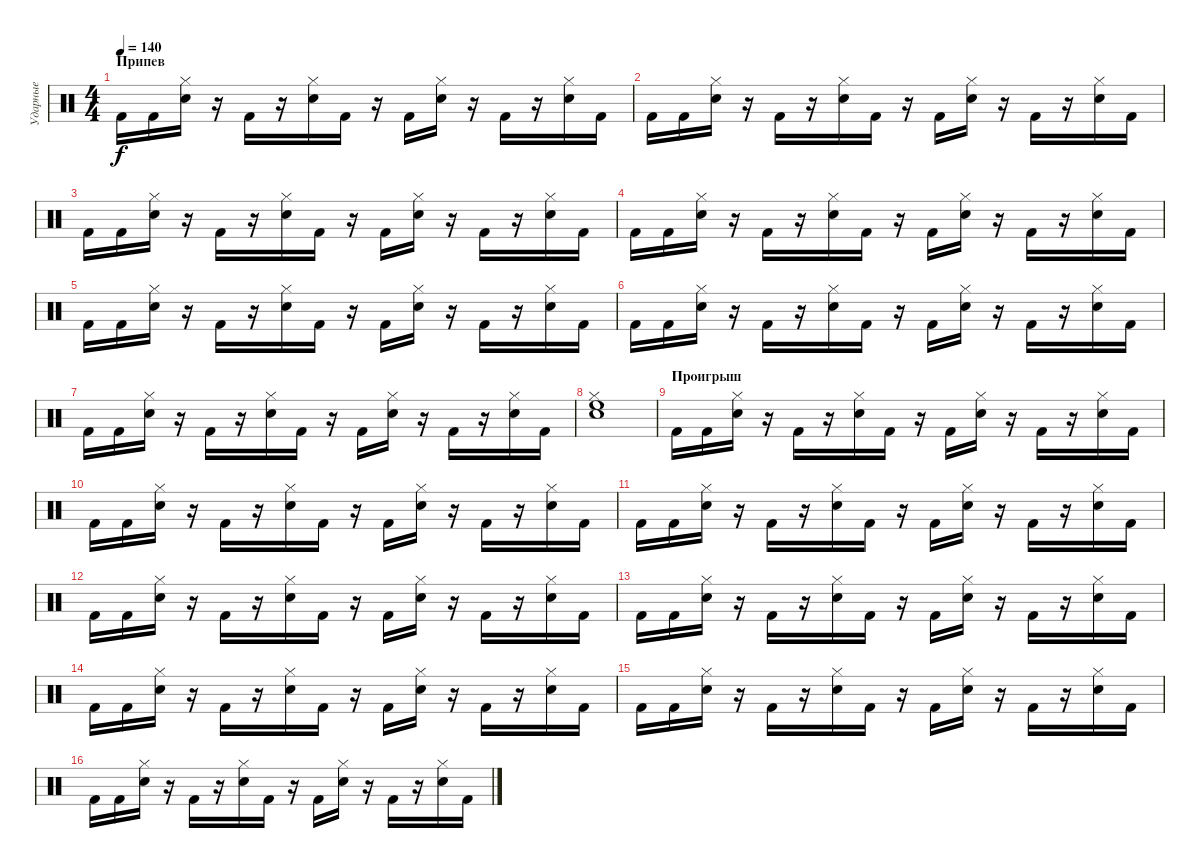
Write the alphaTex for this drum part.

\track ("Ударные" "Ударные") {instrument percussion}
\staff {score}
\articulation defaults
\ts (4 4)
\section ("" "Припев")
\tempo 140
\clef neutral
\ks c "Kick (hit) 2".16{dy f} "Kick (hit) 2".16
("Snare (hit) 2" "Hi-Hat (closed)").16 r.16 "Kick (hit) 2".16 r.16 ("Snare (hit) 2" "Hi-Hat (closed)").16 "Kick (hit) 2".16 r.16 "Kick (hit) 2".16 ("Snare (hit) 2" "Hi-Hat (closed)").16 r.16 "Kick (hit) 2".16 r.16 ("Snare (hit) 2" "Hi-Hat (closed)").16 "Kick (hit) 2".16 |
"Kick (hit) 2".16 "Kick (hit) 2".16 ("Snare (hit) 2" "Hi-Hat (closed)").16 r.16 "Kick (hit) 2".16 r.16 ("Snare (hit) 2" "Hi-Hat (closed)").16 "Kick (hit) 2".16 r.16 "Kick (hit) 2".16 ("Snare (hit) 2" "Hi-Hat (closed)").16 r.16 "Kick (hit) 2".16 r.16 ("Snare (hit) 2" "Hi-Hat (closed)").16 "Kick (hit) 2".16 |
"Kick (hit) 2".16 "Kick (hit) 2".16 ("Snare (hit) 2" "Hi-Hat (closed)").16 r.16 "Kick (hit) 2".16 r.16 ("Snare (hit) 2" "Hi-Hat (closed)").16 "Kick (hit) 2".16 r.16 "Kick (hit) 2".16 ("Snare (hit) 2" "Hi-Hat (closed)").16 r.16 "Kick (hit) 2".16 r.16 ("Snare (hit) 2" "Hi-Hat (closed)").16 "Kick (hit) 2".16 |
"Kick (hit) 2".16{volume 14} "Kick (hit) 2".16 ("Snare (hit) 2" "Hi-Hat (closed)").16 r.16 "Kick (hit) 2".16 r.16 ("Snare (hit) 2" "Hi-Hat (closed)").16 "Kick (hit) 2".16 r.16 "Kick (hit) 2".16 ("Snare (hit) 2" "Hi-Hat (closed)").16 r.16 "Kick (hit) 2".16 r.16 ("Snare (hit) 2" "Hi-Hat (closed)").16 "Kick (hit) 2".16 |
"Kick (hit) 2".16{volume 14} "Kick (hit) 2".16 ("Snare (hit) 2" "Hi-Hat (closed)").16 r.16 "Kick (hit) 2".16 r.16 ("Snare (hit) 2" "Hi-Hat (closed)").16 "Kick (hit) 2".16 r.16 "Kick (hit) 2".16 ("Snare (hit) 2" "Hi-Hat (closed)").16 r.16 "Kick (hit) 2".16 r.16 ("Snare (hit) 2" "Hi-Hat (closed)").16 "Kick (hit) 2".16 |
"Kick (hit) 2".16{volume 14} "Kick (hit) 2".16 ("Snare (hit) 2" "Hi-Hat (closed)").16 r.16 "Kick (hit) 2".16 r.16 ("Snare (hit) 2" "Hi-Hat (closed)").16 "Kick (hit) 2".16 r.16 "Kick (hit) 2".16 ("Snare (hit) 2" "Hi-Hat (closed)").16 r.16 "Kick (hit) 2".16 r.16 ("Snare (hit) 2" "Hi-Hat (closed)").16 "Kick (hit) 2".16 |
"Kick (hit) 2".16{volume 14} "Kick (hit) 2".16 ("Snare (hit) 2" "Hi-Hat (closed)").16 r.16 "Kick (hit) 2".16 r.16 ("Snare (hit) 2" "Hi-Hat (closed)").16 "Kick (hit) 2".16 r.16 "Kick (hit) 2".16 ("Snare (hit) 2" "Hi-Hat (closed)").16 r.16 "Kick (hit) 2".16 r.16 ("Snare (hit) 2" "Hi-Hat (closed)").16 "Kick (hit) 2".16 |
("High Floor Tom (hit)" "Snare (hit) 2" "Hi-Hat (closed)").1 |
\section ("" "Проигрыш")
"Kick (hit) 2".16{volume 16} "Kick (hit) 2".16 ("Snare (hit) 2" "Hi-Hat (closed)").16 r.16 "Kick (hit) 2".16 r.16 ("Snare (hit) 2" "Hi-Hat (closed)").16 "Kick (hit) 2".16 r.16 "Kick (hit) 2".16 ("Snare (hit) 2" "Hi-Hat (closed)").16 r.16 "Kick (hit) 2".16 r.16 ("Snare (hit) 2" "Hi-Hat (closed)").16 "Kick (hit) 2".16 |
"Kick (hit) 2".16 "Kick (hit) 2".16 ("Snare (hit) 2" "Hi-Hat (closed)").16 r.16 "Kick (hit) 2".16 r.16 ("Snare (hit) 2" "Hi-Hat (closed)").16 "Kick (hit) 2".16 r.16 "Kick (hit) 2".16 ("Snare (hit) 2" "Hi-Hat (closed)").16 r.16 "Kick (hit) 2".16 r.16 ("Snare (hit) 2" "Hi-Hat (closed)").16 "Kick (hit) 2".16 |
"Kick (hit) 2".16 "Kick (hit) 2".16 ("Snare (hit) 2" "Hi-Hat (closed)").16 r.16 "Kick (hit) 2".16 r.16 ("Snare (hit) 2" "Hi-Hat (closed)").16 "Kick (hit) 2".16 r.16 "Kick (hit) 2".16 ("Snare (hit) 2" "Hi-Hat (closed)").16 r.16 "Kick (hit) 2".16 r.16 ("Snare (hit) 2" "Hi-Hat (closed)").16 "Kick (hit) 2".16 |
"Kick (hit) 2".16 "Kick (hit) 2".16 ("Snare (hit) 2" "Hi-Hat (closed)").16 r.16 "Kick (hit) 2".16 r.16 ("Snare (hit) 2" "Hi-Hat (closed)").16 "Kick (hit) 2".16 r.16 "Kick (hit) 2".16 ("Snare (hit) 2" "Hi-Hat (closed)").16 r.16 "Kick (hit) 2".16 r.16 ("Snare (hit) 2" "Hi-Hat (closed)").16 "Kick (hit) 2".16 |
"Kick (hit) 2".16 "Kick (hit) 2".16 ("Snare (hit) 2" "Hi-Hat (closed)").16 r.16 "Kick (hit) 2".16 r.16 ("Snare (hit) 2" "Hi-Hat (closed)").16 "Kick (hit) 2".16 r.16 "Kick (hit) 2".16 ("Snare (hit) 2" "Hi-Hat (closed)").16 r.16 "Kick (hit) 2".16 r.16 ("Snare (hit) 2" "Hi-Hat (closed)").16 "Kick (hit) 2".16 |
"Kick (hit) 2".16 "Kick (hit) 2".16 ("Snare (hit) 2" "Hi-Hat (closed)").16 r.16 "Kick (hit) 2".16 r.16 ("Snare (hit) 2" "Hi-Hat (closed)").16 "Kick (hit) 2".16 r.16 "Kick (hit) 2".16 ("Snare (hit) 2" "Hi-Hat (closed)").16 r.16 "Kick (hit) 2".16 r.16 ("Snare (hit) 2" "Hi-Hat (closed)").16 "Kick (hit) 2".16 |
"Kick (hit) 2".16 "Kick (hit) 2".16 ("Snare (hit) 2" "Hi-Hat (closed)").16 r.16 "Kick (hit) 2".16 r.16 ("Snare (hit) 2" "Hi-Hat (closed)").16 "Kick (hit) 2".16 r.16 "Kick (hit) 2".16 ("Snare (hit) 2" "Hi-Hat (closed)").16 r.16 "Kick (hit) 2".16 r.16 ("Snare (hit) 2" "Hi-Hat (closed)").16 "Kick (hit) 2".16 |
"Kick (hit) 2".16 "Kick (hit) 2".16 ("Snare (hit) 2" "Hi-Hat (closed)").16 r.16 "Kick (hit) 2".16 r.16 ("Snare (hit) 2" "Hi-Hat (closed)").16 "Kick (hit) 2".16 r.16 "Kick (hit) 2".16 ("Snare (hit) 2" "Hi-Hat (closed)").16 r.16 "Kick (hit) 2".16 r.16 ("Snare (hit) 2" "Hi-Hat (closed)").16 "Kick (hit) 2".16
